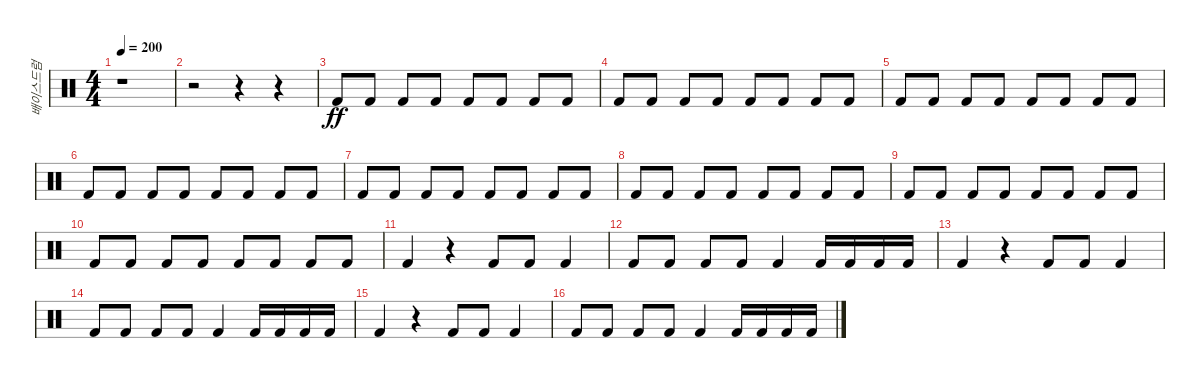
\track ("배이스드럼" "배이스드럼") {instrument percussion}
\staff {score}
\articulation defaults
\ts (4 4)
\tempo 200
\clef neutral
\ks c
r.1{dy ff} |
r.2 r.4 r.4 |
"Kick (hit) 2".8 "Kick (hit) 2".8 "Kick (hit) 2".8 "Kick (hit) 2".8 "Kick (hit) 2".8 "Kick (hit) 2".8 "Kick (hit) 2".8 "Kick (hit) 2".8 |
"Kick (hit) 2".8 "Kick (hit) 2".8 "Kick (hit) 2".8 "Kick (hit) 2".8 "Kick (hit) 2".8 "Kick (hit) 2".8 "Kick (hit) 2".8 "Kick (hit) 2".8 |
"Kick (hit) 2".8 "Kick (hit) 2".8 "Kick (hit) 2".8 "Kick (hit) 2".8 "Kick (hit) 2".8 "Kick (hit) 2".8 "Kick (hit) 2".8 "Kick (hit) 2".8 |
"Kick (hit) 2".8 "Kick (hit) 2".8 "Kick (hit) 2".8 "Kick (hit) 2".8 "Kick (hit) 2".8 "Kick (hit) 2".8 "Kick (hit) 2".8 "Kick (hit) 2".8 |
"Kick (hit) 2".8 "Kick (hit) 2".8 "Kick (hit) 2".8 "Kick (hit) 2".8 "Kick (hit) 2".8 "Kick (hit) 2".8 "Kick (hit) 2".8 "Kick (hit) 2".8 |
"Kick (hit) 2".8 "Kick (hit) 2".8 "Kick (hit) 2".8 "Kick (hit) 2".8 "Kick (hit) 2".8 "Kick (hit) 2".8 "Kick (hit) 2".8 "Kick (hit) 2".8 |
"Kick (hit) 2".8 "Kick (hit) 2".8 "Kick (hit) 2".8 "Kick (hit) 2".8 "Kick (hit) 2".8 "Kick (hit) 2".8 "Kick (hit) 2".8 "Kick (hit) 2".8 |
"Kick (hit) 2".8 "Kick (hit) 2".8 "Kick (hit) 2".8 "Kick (hit) 2".8 "Kick (hit) 2".8 "Kick (hit) 2".8 "Kick (hit) 2".8 "Kick (hit) 2".8 |
"Kick (hit) 2".4 r.4 "Kick (hit) 2".8 "Kick (hit) 2".8 "Kick (hit) 2".4 |
"Kick (hit) 2".8 "Kick (hit) 2".8 "Kick (hit) 2".8 "Kick (hit) 2".8 "Kick (hit) 2".4 "Kick (hit) 2".16 "Kick (hit) 2".16 "Kick (hit) 2".16 "Kick (hit) 2".16 |
"Kick (hit) 2".4 r.4 "Kick (hit) 2".8 "Kick (hit) 2".8 "Kick (hit) 2".4 |
"Kick (hit) 2".8 "Kick (hit) 2".8 "Kick (hit) 2".8 "Kick (hit) 2".8 "Kick (hit) 2".4 "Kick (hit) 2".16 "Kick (hit) 2".16 "Kick (hit) 2".16 "Kick (hit) 2".16 |
"Kick (hit) 2".4 r.4 "Kick (hit) 2".8 "Kick (hit) 2".8 "Kick (hit) 2".4 |
"Kick (hit) 2".8 "Kick (hit) 2".8 "Kick (hit) 2".8 "Kick (hit) 2".8 "Kick (hit) 2".4 "Kick (hit) 2".16 "Kick (hit) 2".16 "Kick (hit) 2".16 "Kick (hit) 2".16
